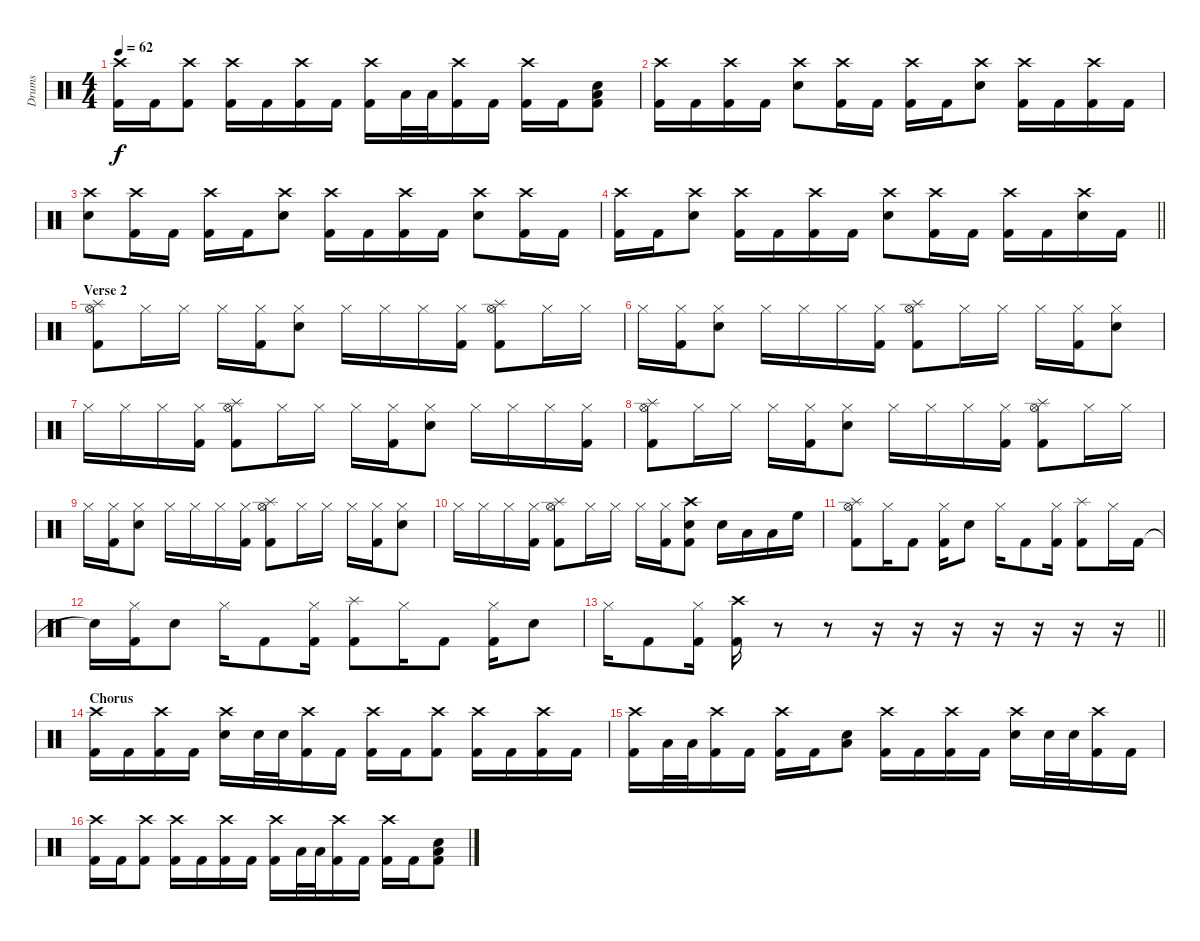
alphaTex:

\track ("Drums" "Drums") {instrument percussion}
\staff {score}
\articulation defaults
\ts (4 4)
\tempo 62
\clef neutral
\ks c
("Kick (hit) 2" "Crash high (hit)").16{dy f} "Kick (hit) 2".16 ("Kick (hit) 2" "Crash high (hit)").8 ("Kick (hit) 2" "Crash high (hit)").16 "Kick (hit) 2".16 ("Kick (hit) 2" "Crash high (hit)").16 "Kick (hit) 2".16 ("Kick (hit) 2" "Crash high (hit)").16 "Low Tom (hit)".32 "Low Tom (hit)".32 ("Kick (hit) 2" "Crash high (hit)").16 "Kick (hit) 2".16 ("Kick (hit) 2" "Crash high (hit)").16 "Kick (hit) 2".16 ("Electric Snare (hit)" "Kick (hit) 2" "Low Tom (hit)").8 |
("Kick (hit) 2" "Crash high (hit)").16 "Kick (hit) 2".16 ("Kick (hit) 2" "Crash high (hit)").16 "Kick (hit) 2".16 ("Electric Snare (hit)" "Crash high (hit)").8 ("Kick (hit) 2" "Crash high (hit)").16 "Kick (hit) 2".16 ("Kick (hit) 2" "Crash high (hit)").16 "Kick (hit) 2".16 ("Electric Snare (hit)" "Crash high (hit)").8 ("Kick (hit) 2" "Crash high (hit)").16 "Kick (hit) 2".16 ("Kick (hit) 2" "Crash high (hit)").16 "Kick (hit) 2".16 |
("Electric Snare (hit)" "Crash high (hit)").8 ("Kick (hit) 2" "Crash high (hit)").16 "Kick (hit) 2".16 ("Kick (hit) 2" "Crash high (hit)").16 "Kick (hit) 2".16 ("Electric Snare (hit)" "Crash high (hit)").8 ("Kick (hit) 2" "Crash high (hit)").16 "Kick (hit) 2".16 ("Kick (hit) 2" "Crash high (hit)").16 "Kick (hit) 2".16 ("Electric Snare (hit)" "Crash high (hit)").8 ("Kick (hit) 2" "Crash high (hit)").16 "Kick (hit) 2".16 |
\barLineRight lightlight
("Kick (hit) 2" "Crash high (hit)").16 "Kick (hit) 2".16 ("Electric Snare (hit)" "Crash high (hit)").8 ("Kick (hit) 2" "Crash high (hit)").16 "Kick (hit) 2".16 ("Kick (hit) 2" "Crash high (hit)").16 "Kick (hit) 2".16 ("Electric Snare (hit)" "Crash high (hit)").8 ("Kick (hit) 2" "Crash high (hit)").16 "Kick (hit) 2".16 ("Kick (hit) 2" "Crash high (hit)").16 "Kick (hit) 2".16 ("Electric Snare (hit)" "Crash high (hit)").16 "Kick (hit) 2".16 |
\section ("" "Verse 2")
("Hi-Hat (open)" "Kick (hit) 2" "Splash (hit)").8 "Hi-Hat (closed)".16 "Hi-Hat (closed)".16 "Hi-Hat (closed)".16 ("Hi-Hat (closed)" "Kick (hit) 2").16 ("Hi-Hat (closed)" "Electric Snare (hit)").8 "Hi-Hat (closed)".16 "Hi-Hat (closed)".16 "Hi-Hat (closed)".16 ("Hi-Hat (closed)" "Kick (hit) 2").16 ("Hi-Hat (open)" "Kick (hit) 2" "Splash (hit)").8 "Hi-Hat (closed)".16 "Hi-Hat (closed)".16 |
"Hi-Hat (closed)".16 ("Hi-Hat (closed)" "Kick (hit) 2").16 ("Hi-Hat (closed)" "Electric Snare (hit)").8 "Hi-Hat (closed)".16 "Hi-Hat (closed)".16 "Hi-Hat (closed)".16 ("Hi-Hat (closed)" "Kick (hit) 2").16 ("Hi-Hat (open)" "Kick (hit) 2" "Splash (hit)").8 "Hi-Hat (closed)".16 "Hi-Hat (closed)".16 "Hi-Hat (closed)".16 ("Hi-Hat (closed)" "Kick (hit) 2").16 ("Hi-Hat (closed)" "Electric Snare (hit)").8 |
"Hi-Hat (closed)".16 "Hi-Hat (closed)".16 "Hi-Hat (closed)".16 ("Hi-Hat (closed)" "Kick (hit) 2").16 ("Hi-Hat (open)" "Kick (hit) 2" "Splash (hit)").8 "Hi-Hat (closed)".16 "Hi-Hat (closed)".16 "Hi-Hat (closed)".16 ("Hi-Hat (closed)" "Kick (hit) 2").16 ("Hi-Hat (closed)" "Electric Snare (hit)").8 "Hi-Hat (closed)".16 "Hi-Hat (closed)".16 "Hi-Hat (closed)".16 ("Hi-Hat (closed)" "Kick (hit) 2").16 |
("Hi-Hat (open)" "Kick (hit) 2" "Splash (hit)").8 "Hi-Hat (closed)".16 "Hi-Hat (closed)".16 "Hi-Hat (closed)".16 ("Hi-Hat (closed)" "Kick (hit) 2").16 ("Hi-Hat (closed)" "Electric Snare (hit)").8 "Hi-Hat (closed)".16 "Hi-Hat (closed)".16 "Hi-Hat (closed)".16 ("Hi-Hat (closed)" "Kick (hit) 2").16 ("Hi-Hat (open)" "Kick (hit) 2" "Splash (hit)").8 "Hi-Hat (closed)".16 "Hi-Hat (closed)".16 |
"Hi-Hat (closed)".16 ("Hi-Hat (closed)" "Kick (hit) 2").16 ("Hi-Hat (closed)" "Electric Snare (hit)").8 "Hi-Hat (closed)".16 "Hi-Hat (closed)".16 "Hi-Hat (closed)".16 ("Hi-Hat (closed)" "Kick (hit) 2").16 ("Hi-Hat (open)" "Kick (hit) 2" "Splash (hit)").8 "Hi-Hat (closed)".16 "Hi-Hat (closed)".16 "Hi-Hat (closed)".16 ("Hi-Hat (closed)" "Kick (hit) 2").16 ("Hi-Hat (closed)" "Electric Snare (hit)").8 |
"Hi-Hat (closed)".16 "Hi-Hat (closed)".16 "Hi-Hat (closed)".16 ("Hi-Hat (closed)" "Kick (hit) 2").16 ("Hi-Hat (open)" "Kick (hit) 2" "Splash (hit)").8 "Hi-Hat (closed)".16 "Hi-Hat (closed)".16 "Hi-Hat (closed)".16 ("Hi-Hat (closed)" "Kick (hit) 2").16 ("Electric Snare (hit)" "Kick (hit) 2" "Crash high (hit)").8 "Electric Snare (hit)".16 "Low Tom (hit)".16 "Low Tom (hit)".16 "High Floor Tom (hit)".16 |
("Hi-Hat (open)" "Kick (hit) 2" "Splash (hit)").8 "Hi-Hat (closed)".16 "Kick (hit) 2".8 ("Hi-Hat (closed)" "Kick (hit) 2").16 "Electric Snare (hit)".8 "Hi-Hat (closed)".16 "Kick (hit) 2".8 ("Hi-Hat (closed)" "Kick (hit) 2").16 ("Kick (hit) 2" "Splash (hit)").8 "Hi-Hat (closed)".16 "Kick (hit) 2".16 |
"Snare (hit)"{t}.16 ("Hi-Hat (closed)" "Kick (hit) 2").16 "Electric Snare (hit)".8 "Hi-Hat (closed)".16 "Kick (hit) 2".8 ("Hi-Hat (closed)" "Kick (hit) 2").16 ("Kick (hit) 2" "Splash (hit)").8 "Hi-Hat (closed)".16 "Kick (hit) 2".8 ("Hi-Hat (closed)" "Kick (hit) 2").16 "Electric Snare (hit)".8 |
\barLineRight lightlight "Hi-Hat (closed)".16 "Kick (hit) 2".8
("Hi-Hat (closed)" "Kick (hit) 2").16 ("Kick (hit) 2" "Crash high (hit)").16 r.8 r.8 r.16 r.16 r.16 r.16 r.16 r.16 r.16 |
\section ("" "Chorus")
("Kick (hit) 2" "Crash high (hit)").16 "Kick (hit) 2".16 ("Kick (hit) 2" "Crash high (hit)").16 "Kick (hit) 2".16 ("Electric Snare (hit)" "Crash high (hit)").16 "Electric Snare (hit)".32 "Electric Snare (hit)".32 ("Kick (hit) 2" "Crash high (hit)").16 "Kick (hit) 2".16 ("Kick (hit) 2" "Crash high (hit)").16 "Kick (hit) 2".16 ("Kick (hit) 2" "Crash high (hit)").8 ("Kick (hit) 2" "Crash high (hit)").16 "Kick (hit) 2".16 ("Kick (hit) 2" "Crash high (hit)").16 "Kick (hit) 2".16 |
("Kick (hit) 2" "Crash high (hit)").16 "Low Tom (hit)".32 "Low Tom (hit)".32 ("Kick (hit) 2" "Crash high (hit)").16 "Kick (hit) 2".16 ("Kick (hit) 2" "Crash high (hit)").16 "Kick (hit) 2".16 ("Electric Snare (hit)" "Low Tom (hit)").8 ("Kick (hit) 2" "Crash high (hit)").16 "Kick (hit) 2".16 ("Kick (hit) 2" "Crash high (hit)").16 "Kick (hit) 2".16 ("Electric Snare (hit)" "Crash high (hit)").16 "Electric Snare (hit)".32 "Electric Snare (hit)".32 ("Kick (hit) 2" "Crash high (hit)").16 "Kick (hit) 2".16 |
("Kick (hit) 2" "Crash high (hit)").16 "Kick (hit) 2".16 ("Kick (hit) 2" "Crash high (hit)").8 ("Kick (hit) 2" "Crash high (hit)").16 "Kick (hit) 2".16 ("Kick (hit) 2" "Crash high (hit)").16 "Kick (hit) 2".16 ("Kick (hit) 2" "Crash high (hit)").16 "Low Tom (hit)".32 "Low Tom (hit)".32 ("Kick (hit) 2" "Crash high (hit)").16 "Kick (hit) 2".16 ("Kick (hit) 2" "Crash high (hit)").16 "Kick (hit) 2".16 ("Electric Snare (hit)" "Kick (hit) 2" "Low Tom (hit)").8
